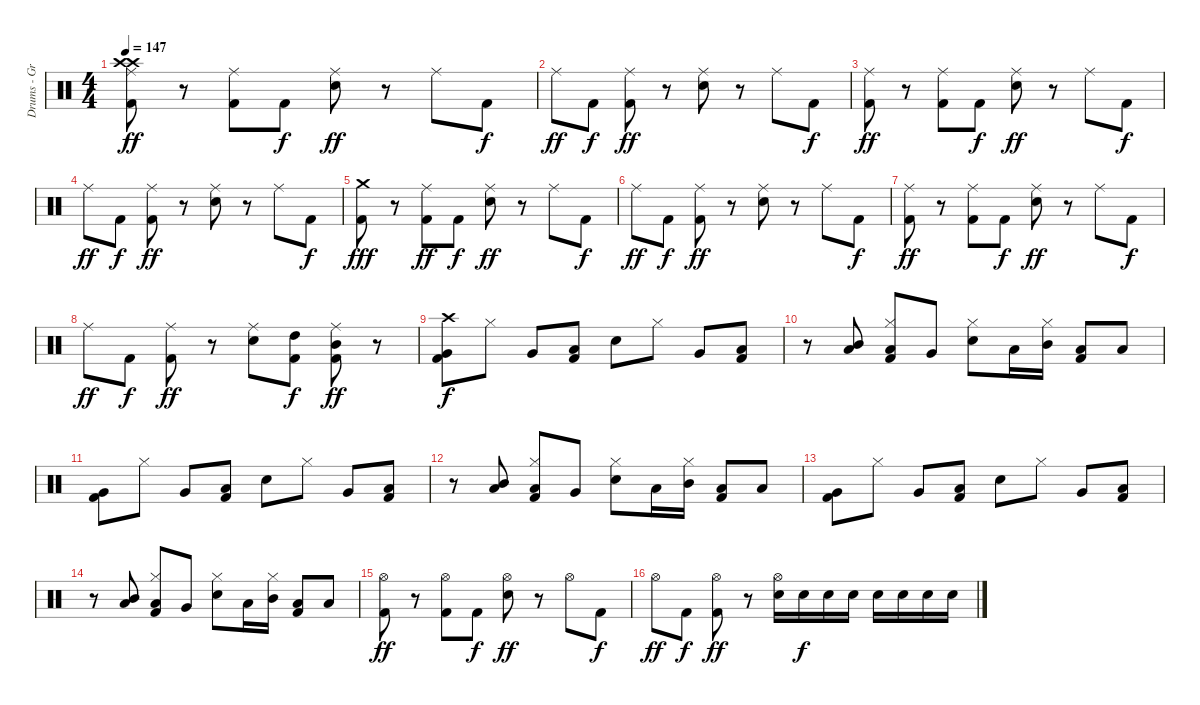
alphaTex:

\track ("Drums - Greg Upchurch" "Drums - Gr") {instrument percussion}
\staff {score}
\articulation defaults
\ts (4 4)
\tempo 147
\clef neutral
\ks c
("Crash high (hit)" "Crash high (hit)" "Ride (middle)" "Kick (hit) 2").8{dy ff} r.8 ("Ride (middle)" "Kick (hit) 2").8 "Kick (hit) 2".8{dy f} ("Ride (middle)" "Electric Snare (hit)").8{dy ff} r.8 "Ride (middle)".8 "Kick (hit) 2".8{dy f} |
"Ride (middle)".8{dy ff} "Kick (hit) 2".8{dy f} ("Ride (middle)" "Kick (hit) 2").8{dy ff} r.8 ("Ride (middle)" "Electric Snare (hit)").8 r.8 "Ride (middle)".8 "Kick (hit) 2".8{dy f} |
("Ride (middle)" "Kick (hit) 2").8{dy ff} r.8 ("Ride (middle)" "Kick (hit) 2").8 "Kick (hit) 2".8{dy f} ("Ride (middle)" "Electric Snare (hit)").8{dy ff} r.8 "Ride (middle)".8 "Kick (hit) 2".8{dy f} |
"Ride (middle)".8{dy ff} "Kick (hit) 2".8{dy f} ("Ride (middle)" "Kick (hit) 2").8{dy ff} r.8 ("Ride (middle)" "Electric Snare (hit)").8 r.8 "Ride (middle)".8 "Kick (hit) 2".8{dy f} |
("Crash medium (hit)" "Kick (hit) 2").8{dy fff} r.8 ("Ride (middle)" "Kick (hit) 2").8{dy ff} "Kick (hit) 2".8{dy f} ("Ride (middle)" "Electric Snare (hit)").8{dy ff} r.8 "Ride (middle)".8 "Kick (hit) 2".8{dy f} |
"Ride (middle)".8{dy ff} "Kick (hit) 2".8{dy f} ("Ride (middle)" "Kick (hit) 2").8{dy ff} r.8 ("Ride (middle)" "Electric Snare (hit)").8 r.8 "Ride (middle)".8 "Kick (hit) 2".8{dy f} |
("Ride (middle)" "Kick (hit) 2").8{dy ff} r.8 ("Ride (middle)" "Kick (hit) 2").8 "Kick (hit) 2".8{dy f} ("Ride (middle)" "Electric Snare (hit)").8{dy ff} r.8 "Ride (middle)".8 "Kick (hit) 2".8{dy f} |
"Ride (middle)".8{dy ff} "Kick (hit) 2".8{dy f} ("Ride (middle)" "Kick (hit) 2").8{dy ff} r.8 ("Ride (middle)" "Electric Snare (hit)").8 ("High Tom (hit)" "Kick (hit) 2").8{dy f} ("Ride (middle)" "Mid Tom (hit)" "Kick (hit) 2").8{dy ff} r.8 |
("Crash high (hit)" "Very Low Tom (hit)" "Kick (hit) 2").8{dy f} "Hi-Hat (closed)".8 "Very Low Tom (hit)".8 ("Low Tom (hit)" "Kick (hit) 2").8 "Electric Snare (hit)".8 "Hi-Hat (closed)".8 "Very Low Tom (hit)".8 ("Low Tom (hit)" "Kick (hit) 2").8 |
r.8 ("Low Tom (hit)" "Mid Tom (hit)").8 ("Hi-Hat (closed)" "Kick (hit) 2" "Low Tom (hit)").8 "Very Low Tom (hit)".8 ("Hi-Hat (closed)" "Electric Snare (hit)").8 "Low Tom (hit)".16 ("Hi-Hat (closed)" "Mid Tom (hit)").16 ("Kick (hit) 2" "Low Tom (hit)").8 "Low Tom (hit)".8 |
("Very Low Tom (hit)" "Kick (hit) 2").8 "Hi-Hat (closed)".8 "Very Low Tom (hit)".8 ("Low Tom (hit)" "Kick (hit) 2").8 "Electric Snare (hit)".8 "Hi-Hat (closed)".8 "Very Low Tom (hit)".8 ("Low Tom (hit)" "Kick (hit) 2").8 |
r.8 ("Low Tom (hit)" "Mid Tom (hit)").8 ("Hi-Hat (closed)" "Kick (hit) 2" "Low Tom (hit)").8 "Very Low Tom (hit)".8 ("Hi-Hat (closed)" "Electric Snare (hit)").8 "Low Tom (hit)".16 ("Hi-Hat (closed)" "Mid Tom (hit)").16 ("Kick (hit) 2" "Low Tom (hit)").8 "Low Tom (hit)".8 |
("Very Low Tom (hit)" "Kick (hit) 2").8 "Hi-Hat (closed)".8 "Very Low Tom (hit)".8 ("Low Tom (hit)" "Kick (hit) 2").8 "Electric Snare (hit)".8 "Hi-Hat (closed)".8 "Very Low Tom (hit)".8 ("Low Tom (hit)" "Kick (hit) 2").8 |
r.8 ("Low Tom (hit)" "Mid Tom (hit)").8 ("Hi-Hat (closed)" "Kick (hit) 2" "Low Tom (hit)").8 "Very Low Tom (hit)".8 ("Hi-Hat (closed)" "Electric Snare (hit)").8 "Low Tom (hit)".16 ("Hi-Hat (closed)" "Mid Tom (hit)").16 ("Kick (hit) 2" "Low Tom (hit)").8 "Low Tom (hit)".8 |
("Hi-Hat (open)" "Kick (hit) 2").8{dy ff} r.8 ("Hi-Hat (open)" "Kick (hit) 2").8 "Kick (hit) 2".8{dy f} ("Hi-Hat (open)" "Electric Snare (hit)").8{dy ff} r.8 "Hi-Hat (open)".8 "Kick (hit) 2".8{dy f} |
"Hi-Hat (open)".8{dy ff} "Kick (hit) 2".8{dy f} ("Hi-Hat (open)" "Kick (hit) 2").8{dy ff} r.8 ("Hi-Hat (open)" "Electric Snare (hit)").16 "Electric Snare (hit)".16{dy f} "Electric Snare (hit)".16 "Electric Snare (hit)".16 "Electric Snare (hit)".16 "Electric Snare (hit)".16 "Electric Snare (hit)".16 "Electric Snare (hit)".16
